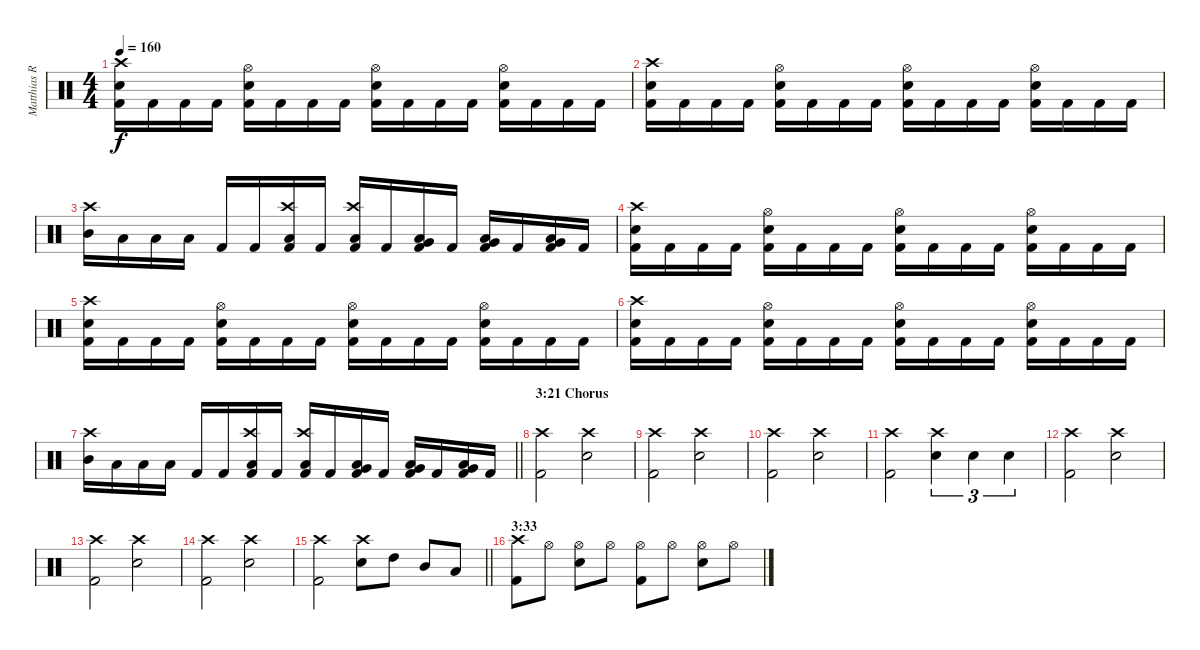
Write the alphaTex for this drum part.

\track ("Matthias R." "Matthias R") {instrument percussion}
\staff {score}
\articulation defaults
\ts (4 4)
\tempo 160
\clef neutral
\ks c
("Kick (hit) 2" "Snare (hit) 2" "Crash high (hit)").16{dy f} "Kick (hit) 2".16 "Kick (hit) 2".16 "Kick (hit) 2".16 ("Kick (hit) 2" "Snare (hit) 2" "Hi-Hat (open)").16 "Kick (hit) 2".16 "Kick (hit) 2".16 "Kick (hit) 2".16 ("Kick (hit) 2" "Snare (hit) 2" "Hi-Hat (open)").16 "Kick (hit) 2".16 "Kick (hit) 2".16 "Kick (hit) 2".16 ("Kick (hit) 2" "Snare (hit) 2" "Hi-Hat (open)").16 "Kick (hit) 2".16 "Kick (hit) 2".16 "Kick (hit) 2".16 |
("Kick (hit) 2" "Snare (hit) 2" "Crash high (hit)").16 "Kick (hit) 2".16 "Kick (hit) 2".16 "Kick (hit) 2".16 ("Kick (hit) 2" "Snare (hit) 2" "Hi-Hat (open)").16 "Kick (hit) 2".16 "Kick (hit) 2".16 "Kick (hit) 2".16 ("Kick (hit) 2" "Snare (hit) 2" "Hi-Hat (open)").16 "Kick (hit) 2".16 "Kick (hit) 2".16 "Kick (hit) 2".16 ("Kick (hit) 2" "Snare (hit) 2" "Hi-Hat (open)").16 "Kick (hit) 2".16 "Kick (hit) 2".16 "Kick (hit) 2".16 |
("Mid Tom (hit)" "Crash high (hit)").16 "Low Tom (hit)".16 "Low Tom (hit)".16 "Low Tom (hit)".16 "Kick (hit) 2".16 "Kick (hit) 2".16 ("Kick (hit) 2" "Low Tom (hit)" "Crash high (hit)").16 "Kick (hit) 2".16 ("Kick (hit) 2" "Low Tom (hit)" "Crash high (hit)").16 "Kick (hit) 2".16 ("Kick (hit) 2" "Very Low Tom (hit)" "Low Floor Tom (hit)").16 "Kick (hit) 2".16 ("Kick (hit) 2" "Very Low Tom (hit)" "Low Floor Tom (hit)").16 "Kick (hit) 2".16 ("Kick (hit) 2" "Very Low Tom (hit)" "Low Floor Tom (hit)").16 "Kick (hit) 2".16 |
("Kick (hit) 2" "Snare (hit) 2" "Crash high (hit)").16 "Kick (hit) 2".16 "Kick (hit) 2".16 "Kick (hit) 2".16 ("Kick (hit) 2" "Snare (hit) 2" "Hi-Hat (open)").16 "Kick (hit) 2".16 "Kick (hit) 2".16 "Kick (hit) 2".16 ("Kick (hit) 2" "Snare (hit) 2" "Hi-Hat (open)").16 "Kick (hit) 2".16 "Kick (hit) 2".16 "Kick (hit) 2".16 ("Kick (hit) 2" "Snare (hit) 2" "Hi-Hat (open)").16 "Kick (hit) 2".16 "Kick (hit) 2".16 "Kick (hit) 2".16 |
("Kick (hit) 2" "Snare (hit) 2" "Crash high (hit)").16 "Kick (hit) 2".16 "Kick (hit) 2".16 "Kick (hit) 2".16 ("Kick (hit) 2" "Snare (hit) 2" "Hi-Hat (open)").16 "Kick (hit) 2".16 "Kick (hit) 2".16 "Kick (hit) 2".16 ("Kick (hit) 2" "Snare (hit) 2" "Hi-Hat (open)").16 "Kick (hit) 2".16 "Kick (hit) 2".16 "Kick (hit) 2".16 ("Kick (hit) 2" "Snare (hit) 2" "Hi-Hat (open)").16 "Kick (hit) 2".16 "Kick (hit) 2".16 "Kick (hit) 2".16 |
("Kick (hit) 2" "Snare (hit) 2" "Crash high (hit)").16 "Kick (hit) 2".16 "Kick (hit) 2".16 "Kick (hit) 2".16 ("Kick (hit) 2" "Snare (hit) 2" "Hi-Hat (open)").16 "Kick (hit) 2".16 "Kick (hit) 2".16 "Kick (hit) 2".16 ("Kick (hit) 2" "Snare (hit) 2" "Hi-Hat (open)").16 "Kick (hit) 2".16 "Kick (hit) 2".16 "Kick (hit) 2".16 ("Kick (hit) 2" "Snare (hit) 2" "Hi-Hat (open)").16 "Kick (hit) 2".16 "Kick (hit) 2".16 "Kick (hit) 2".16 |
\barLineRight lightlight
("Mid Tom (hit)" "Crash high (hit)").16 "Low Tom (hit)".16 "Low Tom (hit)".16 "Low Tom (hit)".16 "Kick (hit) 2".16 "Kick (hit) 2".16 ("Kick (hit) 2" "Low Tom (hit)" "Crash high (hit)").16 "Kick (hit) 2".16 ("Kick (hit) 2" "Low Tom (hit)" "Crash high (hit)").16 "Kick (hit) 2".16 ("Kick (hit) 2" "Very Low Tom (hit)" "Low Floor Tom (hit)").16 "Kick (hit) 2".16 ("Kick (hit) 2" "Very Low Tom (hit)" "Low Floor Tom (hit)").16 "Kick (hit) 2".16 ("Kick (hit) 2" "Very Low Tom (hit)" "Low Floor Tom (hit)").16 "Kick (hit) 2".16 |
\section ("" "3:21 Chorus")
("Kick (hit) 2" "Crash high (hit)").2 ("Snare (hit) 2" "Crash high (hit)").2 |
("Kick (hit) 2" "Crash high (hit)").2 ("Snare (hit) 2" "Crash high (hit)").2 |
("Kick (hit) 2" "Crash high (hit)").2 ("Snare (hit) 2" "Crash high (hit)").2 |
("Kick (hit) 2" "Crash high (hit)").2 ("Snare (hit) 2" "Crash high (hit)").4{tu (3 2)} "Snare (hit) 2".4{tu (3 2)} "Snare (hit) 2".4{tu (3 2)} |
("Kick (hit) 2" "Crash high (hit)").2 ("Snare (hit) 2" "Crash high (hit)").2 |
("Kick (hit) 2" "Crash high (hit)").2 ("Snare (hit) 2" "Crash high (hit)").2 |
("Kick (hit) 2" "Crash high (hit)").2 ("Snare (hit) 2" "Crash high (hit)").2 |
\barLineRight lightlight
("Kick (hit) 2" "Crash high (hit)").2 ("Snare (hit) 2" "Crash high (hit)").8 "High Tom (hit)".8 "Mid Tom (hit)".8 "Low Tom (hit)".8 |
\section ("" "3:33")
("Kick (hit) 2" "Crash high (hit)").8 "Hi-Hat (open)".8 ("Snare (hit) 2" "Hi-Hat (open)").8 "Hi-Hat (open)".8 ("Kick (hit) 2" "Hi-Hat (open)").8 "Hi-Hat (open)".8 ("Snare (hit) 2" "Hi-Hat (open)").8 "Hi-Hat (open)".8
